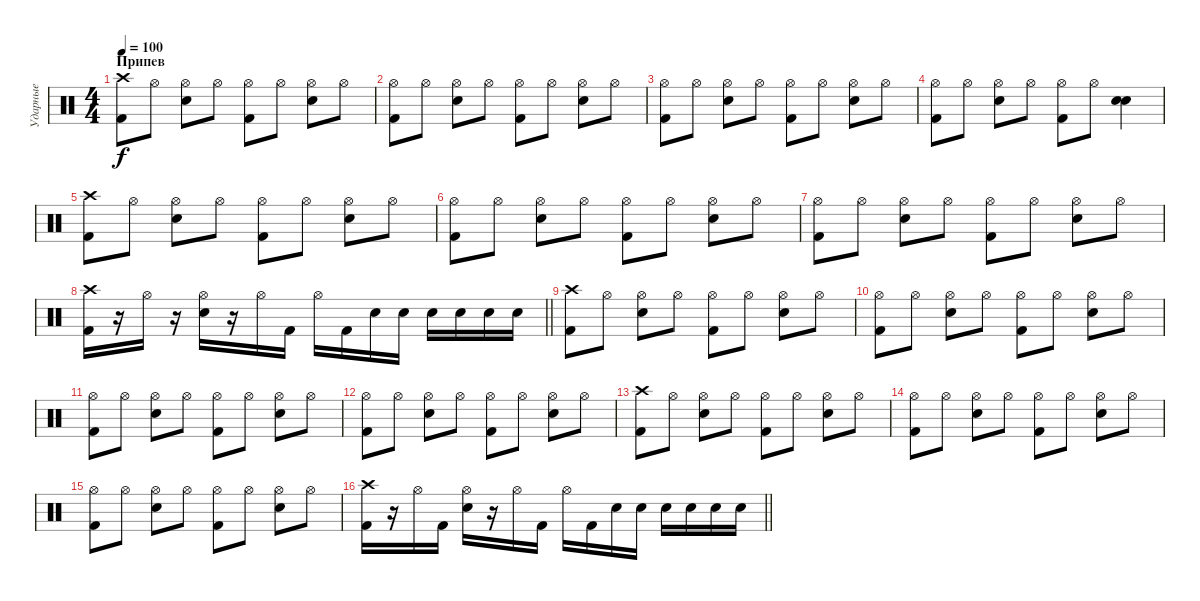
\track ("Ударные" "Ударные") {instrument percussion}
\staff {score}
\articulation defaults
\ts (4 4)
\section ("" "Припев")
\tempo 100
\clef neutral
\ks c
("Crash high (hit)" "Kick (hit) 2").8{dy f} "Hi-Hat (open)".8 ("Hi-Hat (open)" "Electric Snare (hit)").8 "Hi-Hat (open)".8 ("Hi-Hat (open)" "Kick (hit) 2").8 "Hi-Hat (open)".8 ("Hi-Hat (open)" "Electric Snare (hit)").8 "Hi-Hat (open)".8 |
("Hi-Hat (open)" "Kick (hit) 2").8 "Hi-Hat (open)".8 ("Hi-Hat (open)" "Electric Snare (hit)").8 "Hi-Hat (open)".8 ("Hi-Hat (open)" "Kick (hit) 2").8 "Hi-Hat (open)".8 ("Hi-Hat (open)" "Electric Snare (hit)").8 "Hi-Hat (open)".8 |
("Hi-Hat (open)" "Kick (hit) 2").8 "Hi-Hat (open)".8 ("Hi-Hat (open)" "Electric Snare (hit)").8 "Hi-Hat (open)".8 ("Hi-Hat (open)" "Kick (hit) 2").8 "Hi-Hat (open)".8 ("Hi-Hat (open)" "Electric Snare (hit)").8 "Hi-Hat (open)".8 |
("Hi-Hat (open)" "Kick (hit) 2").8 "Hi-Hat (open)".8 ("Hi-Hat (open)" "Electric Snare (hit)").8 "Hi-Hat (open)".8 ("Hi-Hat (open)" "Kick (hit) 2").8 "Hi-Hat (open)".8 ("Electric Snare (hit)" "Electric Snare (hit)").4 |
("Crash high (hit)" "Kick (hit) 2").8 "Hi-Hat (open)".8 ("Hi-Hat (open)" "Electric Snare (hit)").8 "Hi-Hat (open)".8 ("Hi-Hat (open)" "Kick (hit) 2").8 "Hi-Hat (open)".8 ("Hi-Hat (open)" "Electric Snare (hit)").8 "Hi-Hat (open)".8 |
("Hi-Hat (open)" "Kick (hit) 2").8 "Hi-Hat (open)".8 ("Hi-Hat (open)" "Electric Snare (hit)").8 "Hi-Hat (open)".8 ("Hi-Hat (open)" "Kick (hit) 2").8 "Hi-Hat (open)".8 ("Hi-Hat (open)" "Electric Snare (hit)").8 "Hi-Hat (open)".8 |
("Hi-Hat (open)" "Kick (hit) 2").8 "Hi-Hat (open)".8 ("Hi-Hat (open)" "Electric Snare (hit)").8 "Hi-Hat (open)".8 ("Hi-Hat (open)" "Kick (hit) 2").8 "Hi-Hat (open)".8 ("Hi-Hat (open)" "Electric Snare (hit)").8 "Hi-Hat (open)".8 |
\barLineRight lightlight
("Crash high (hit)" "Kick (hit) 2").16 r.16 "Hi-Hat (open)".16 r.16 ("Hi-Hat (open)" "Electric Snare (hit)").16 r.16 "Hi-Hat (open)".16 "Kick (hit) 2".16 "Hi-Hat (open)".16 "Kick (hit) 2".16 "Electric Snare (hit)".16 "Electric Snare (hit)".16 "Electric Snare (hit)".16 "Electric Snare (hit)".16 "Electric Snare (hit)".16 "Electric Snare (hit)".16 |
("Crash high (hit)" "Kick (hit) 2").8 "Hi-Hat (open)".8 ("Hi-Hat (open)" "Electric Snare (hit)").8 "Hi-Hat (open)".8 ("Hi-Hat (open)" "Kick (hit) 2").8 "Hi-Hat (open)".8 ("Hi-Hat (open)" "Electric Snare (hit)").8 "Hi-Hat (open)".8 |
("Hi-Hat (open)" "Kick (hit) 2").8 "Hi-Hat (open)".8 ("Hi-Hat (open)" "Electric Snare (hit)").8 "Hi-Hat (open)".8 ("Hi-Hat (open)" "Kick (hit) 2").8 "Hi-Hat (open)".8 ("Hi-Hat (open)" "Electric Snare (hit)").8 "Hi-Hat (open)".8 |
("Hi-Hat (open)" "Kick (hit) 2").8 "Hi-Hat (open)".8 ("Hi-Hat (open)" "Electric Snare (hit)").8 "Hi-Hat (open)".8 ("Hi-Hat (open)" "Kick (hit) 2").8 "Hi-Hat (open)".8 ("Hi-Hat (open)" "Electric Snare (hit)").8 "Hi-Hat (open)".8 |
("Hi-Hat (open)" "Kick (hit) 2").8 "Hi-Hat (open)".8 ("Hi-Hat (open)" "Electric Snare (hit)").8 "Hi-Hat (open)".8 ("Hi-Hat (open)" "Kick (hit) 2").8 "Hi-Hat (open)".8 ("Hi-Hat (open)" "Electric Snare (hit)").8 "Hi-Hat (open)".8 |
("Crash high (hit)" "Kick (hit) 2").8 "Hi-Hat (open)".8 ("Hi-Hat (open)" "Electric Snare (hit)").8 "Hi-Hat (open)".8 ("Hi-Hat (open)" "Kick (hit) 2").8 "Hi-Hat (open)".8 ("Hi-Hat (open)" "Electric Snare (hit)").8 "Hi-Hat (open)".8 |
("Hi-Hat (open)" "Kick (hit) 2").8 "Hi-Hat (open)".8 ("Hi-Hat (open)" "Electric Snare (hit)").8 "Hi-Hat (open)".8 ("Hi-Hat (open)" "Kick (hit) 2").8 "Hi-Hat (open)".8 ("Hi-Hat (open)" "Electric Snare (hit)").8 "Hi-Hat (open)".8 |
("Hi-Hat (open)" "Kick (hit) 2").8 "Hi-Hat (open)".8 ("Hi-Hat (open)" "Electric Snare (hit)").8 "Hi-Hat (open)".8 ("Hi-Hat (open)" "Kick (hit) 2").8 "Hi-Hat (open)".8 ("Hi-Hat (open)" "Electric Snare (hit)").8 "Hi-Hat (open)".8 |
\barLineRight lightlight
("Crash high (hit)" "Kick (hit) 2").16 r.16 "Hi-Hat (open)".16 "Kick (hit) 2".16 ("Hi-Hat (open)" "Electric Snare (hit)").16 r.16 "Hi-Hat (open)".16 "Kick (hit) 2".16 "Hi-Hat (open)".16 "Kick (hit) 2".16 "Electric Snare (hit)".16 "Electric Snare (hit)".16 "Electric Snare (hit)".16 "Electric Snare (hit)".16 "Electric Snare (hit)".16 "Electric Snare (hit)".16
